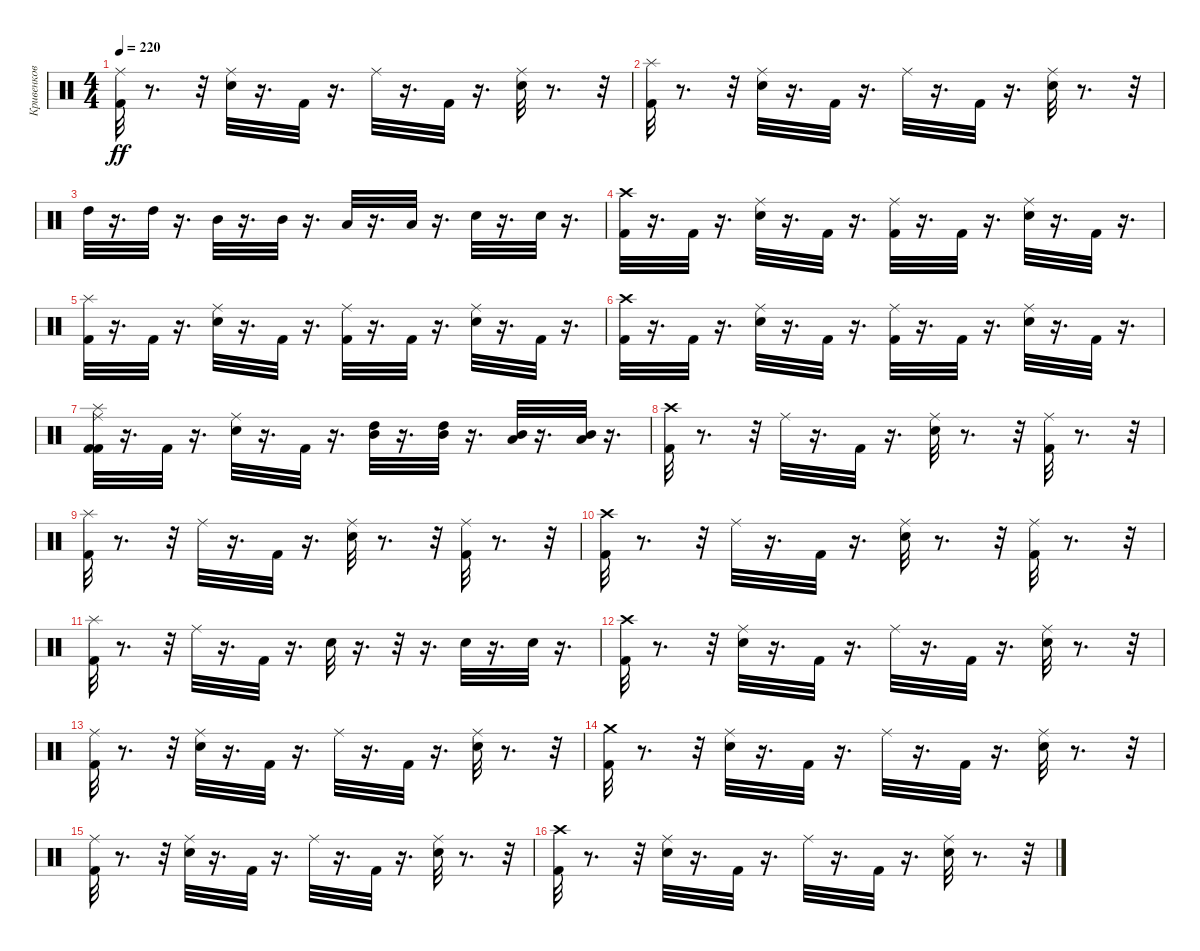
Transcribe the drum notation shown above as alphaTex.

\track ("Кривенков" "Кривенков") {instrument percussion}
\staff {score}
\articulation defaults
\ts (4 4)
\tempo 220
\clef neutral
\ks c
("Kick (hit) 2" "Ride (middle)").32{dy ff} r.8{d} r.32 ("Electric Snare (hit)" "Ride (middle)").32 r.16{d} "Kick (hit) 2".32 r.16{d} "Ride (middle)".32 r.16{d} "Kick (hit) 2".32 r.16{d} ("Electric Snare (hit)" "Ride (middle)").32 r.8{d} r.32 |
("Splash (hit)" "Kick (hit) 2").32 r.8{d} r.32 ("Ride (middle)" "Electric Snare (hit)").32 r.16{d} "Kick (hit) 2".32 r.16{d} "Ride (middle)".32 r.16{d} "Kick (hit) 2".32 r.16{d} ("Ride (middle)" "Electric Snare (hit)").32 r.8{d} r.32 |
"High Tom (hit)".32 r.16{d} "High Tom (hit)".32 r.16{d} "Mid Tom (hit)".32 r.16{d} "Mid Tom (hit)".32 r.16{d} "Low Tom (hit)".32 r.16{d} "Low Tom (hit)".32 r.16{d} "Electric Snare (hit)".32 r.16{d} "Electric Snare (hit)".32 r.16{d} |
("Crash high (hit)" "Kick (hit) 2").32 r.16{d} "Kick (hit) 2".32 r.16{d} ("Ride (middle)" "Electric Snare (hit)").32 r.16{d} "Kick (hit) 2".32 r.16{d} ("Ride (middle)" "Kick (hit) 2").32 r.16{d} "Kick (hit) 2".32 r.16{d} ("Electric Snare (hit)" "Ride (middle)").32 r.16{d} "Kick (hit) 2".32 r.16{d} |
("Kick (hit) 2" "Splash (hit)").32 r.16{d} "Kick (hit) 2".32 r.16{d} ("Electric Snare (hit)" "Ride (middle)").32 r.16{d} "Kick (hit) 2".32 r.16{d} ("Kick (hit) 2" "Ride (middle)").32 r.16{d} "Kick (hit) 2".32 r.16{d} ("Electric Snare (hit)" "Ride (middle)").32 r.16{d} "Kick (hit) 2".32 r.16{d} |
("Crash high (hit)" "Kick (hit) 2").32 r.16{d} "Kick (hit) 2".32 r.16{d} ("Ride (middle)" "Electric Snare (hit)").32 r.16{d} "Kick (hit) 2".32 r.16{d} ("Ride (middle)" "Kick (hit) 2").32 r.16{d} "Kick (hit) 2".32 r.16{d} ("Electric Snare (hit)" "Ride (middle)").32 r.16{d} "Kick (hit) 2".32 r.16{d} |
("Ride (middle)" "Kick (hit) 2" "Kick (hit) 2" "Splash (hit)").32 r.16{d} "Kick (hit) 2".32 r.16{d} ("Ride (middle)" "Electric Snare (hit)").32 r.16{d} "Kick (hit) 2".32 r.16{d} ("Mid Tom (hit)" "High Tom (hit)").32 r.16{d} ("Mid Tom (hit)" "High Tom (hit)").32 r.16{d} ("Low Tom (hit)" "Mid Tom (hit)").32 r.16{d} ("Low Tom (hit)" "Mid Tom (hit)").32 r.16{d} |
("Kick (hit) 2" "Crash high (hit)").32 r.8{d} r.32 "Ride (middle)".32 r.16{d} "Kick (hit) 2".32 r.16{d} ("Electric Snare (hit)" "Ride (middle)").32 r.8{d} r.32 ("Kick (hit) 2" "Ride (middle)").32 r.8{d} r.32 |
("Splash (hit)" "Kick (hit) 2").32 r.8{d} r.32 "Ride (middle)".32 r.16{d} "Kick (hit) 2".32 r.16{d} ("Ride (middle)" "Electric Snare (hit)").32 r.8{d} r.32 ("Ride (middle)" "Kick (hit) 2").32 r.8{d} r.32 |
("Kick (hit) 2" "Crash high (hit)").32 r.8{d} r.32 "Ride (middle)".32 r.16{d} "Kick (hit) 2".32 r.16{d} ("Electric Snare (hit)" "Ride (middle)").32 r.8{d} r.32 ("Kick (hit) 2" "Ride (middle)").32 r.8{d} r.32 |
("Splash (hit)" "Kick (hit) 2").32 r.8{d} r.32 "Ride (middle)".32 r.16{d} "Kick (hit) 2".32 r.16{d} "Electric Snare (hit)".32 r.16{d} r.32 r.16{d} "Electric Snare (hit)".32 r.16{d} "Electric Snare (hit)".32 r.16{d} |
("Crash high (hit)" "Kick (hit) 2").32 r.8{d} r.32 ("Ride (middle)" "Electric Snare (hit)").32 r.16{d} "Kick (hit) 2".32 r.16{d} "Ride (middle)".32 r.16{d} "Kick (hit) 2".32 r.16{d} ("Ride (middle)" "Electric Snare (hit)").32 r.8{d} r.32 |
("Kick (hit) 2" "Ride (middle)").32 r.8{d} r.32 ("Electric Snare (hit)" "Ride (middle)").32 r.16{d} "Kick (hit) 2".32 r.16{d} "Ride (middle)".32 r.16{d} "Kick (hit) 2".32 r.16{d} ("Electric Snare (hit)" "Ride (middle)").32 r.8{d} r.32 |
("Crash medium (hit)" "Kick (hit) 2").32 r.8{d} r.32 ("Ride (middle)" "Electric Snare (hit)").32 r.16{d} "Kick (hit) 2".32 r.16{d} "Ride (middle)".32 r.16{d} "Kick (hit) 2".32 r.16{d} ("Ride (middle)" "Electric Snare (hit)").32 r.8{d} r.32 |
("Kick (hit) 2" "Ride (middle)").32 r.8{d} r.32 ("Electric Snare (hit)" "Ride (middle)").32 r.16{d} "Kick (hit) 2".32 r.16{d} "Ride (middle)".32 r.16{d} "Kick (hit) 2".32 r.16{d} ("Electric Snare (hit)" "Ride (middle)").32 r.8{d} r.32 |
("Crash high (hit)" "Kick (hit) 2").32 r.8{d} r.32 ("Ride (middle)" "Electric Snare (hit)").32 r.16{d} "Kick (hit) 2".32 r.16{d} "Ride (middle)".32 r.16{d} "Kick (hit) 2".32 r.16{d} ("Ride (middle)" "Electric Snare (hit)").32 r.8{d} r.32
